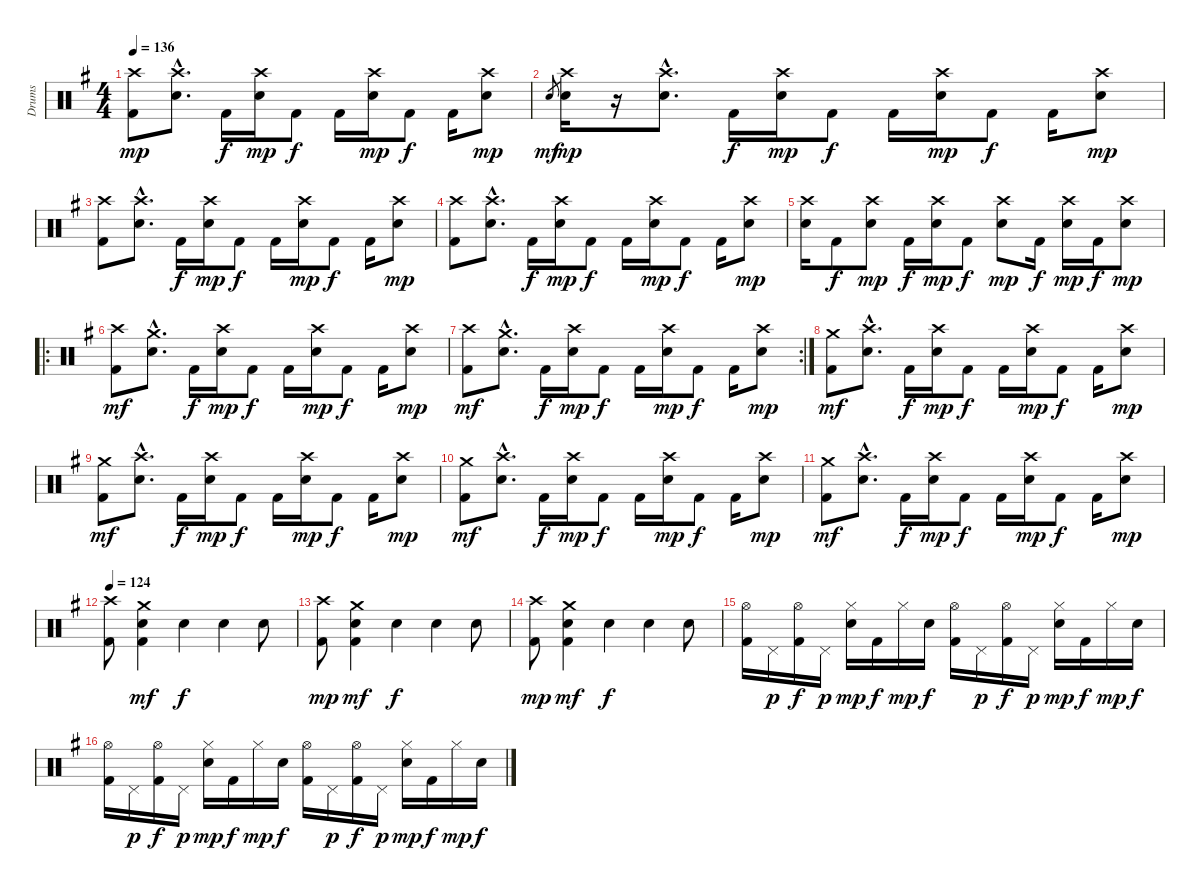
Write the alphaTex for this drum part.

\track ("Drums" "Drums") {instrument percussion}
\staff {score}
\articulation defaults
\ts (4 4)
\tempo 136
\clef neutral
\ks g
("Crash high (hit)" "Kick (hit) 2").8{dy mp} ("Crash high (hit)"{hac} "Snare (hit) 2"{hac}).8{d} "Kick (hit) 2".16{dy f} ("Crash high (hit)" "Snare (hit) 2").16{dy mp} "Kick (hit) 2".8{dy f} "Kick (hit) 2".16 ("Crash high (hit)" "Snare (hit) 2").16{dy mp} "Kick (hit) 2".8{dy f} "Kick (hit) 2".16 ("Crash high (hit)" "Snare (hit) 2").8{dy mp} |
"Snare (hit) 2".8{gr dy mf} ("Crash high (hit)" "Snare (hit) 2").16{dy mp} r.16 ("Crash high (hit)"{hac} "Snare (hit) 2"{hac}).8{d} "Kick (hit) 2".16{dy f} ("Crash high (hit)" "Snare (hit) 2").16{dy mp} "Kick (hit) 2".8{dy f} "Kick (hit) 2".16 ("Crash high (hit)" "Snare (hit) 2").16{dy mp} "Kick (hit) 2".8{dy f} "Kick (hit) 2".16 ("Crash high (hit)" "Snare (hit) 2").8{dy mp} |
("Crash high (hit)" "Kick (hit) 2").8 ("Crash high (hit)"{hac} "Snare (hit) 2"{hac}).8{d} "Kick (hit) 2".16{dy f} ("Crash high (hit)" "Snare (hit) 2").16{dy mp} "Kick (hit) 2".8{dy f} "Kick (hit) 2".16 ("Crash high (hit)" "Snare (hit) 2").16{dy mp} "Kick (hit) 2".8{dy f} "Kick (hit) 2".16 ("Crash high (hit)" "Snare (hit) 2").8{dy mp} |
("Crash high (hit)" "Kick (hit) 2").8 ("Crash high (hit)"{hac} "Snare (hit) 2"{hac}).8{d} "Kick (hit) 2".16{dy f} ("Crash high (hit)" "Snare (hit) 2").16{dy mp} "Kick (hit) 2".8{dy f} "Kick (hit) 2".16 ("Crash high (hit)" "Snare (hit) 2").16{dy mp} "Kick (hit) 2".8{dy f} "Kick (hit) 2".16 ("Crash high (hit)" "Snare (hit) 2").8{dy mp} |
("Crash high (hit)" "Snare (hit) 2").16 "Kick (hit) 2".8{dy f} ("Crash high (hit)" "Snare (hit) 2").8{dy mp} "Kick (hit) 2".16{dy f} ("Crash high (hit)" "Snare (hit) 2").16{dy mp} "Kick (hit) 2".8{dy f} ("Crash high (hit)" "Snare (hit) 2").8{dy mp} "Kick (hit) 2".16{dy f} ("Crash high (hit)" "Snare (hit) 2").16{dy mp} "Kick (hit) 2".16{dy f} ("Crash high (hit)" "Snare (hit) 2").8{dy mp} |
\ro
("Crash high (hit)" "Kick (hit) 2").8{dy mf} ("Crash medium (hit)"{hac} "Snare (hit) 2"{hac}).8{d} "Kick (hit) 2".16{dy f} ("Crash high (hit)" "Snare (hit) 2").16{dy mp} "Kick (hit) 2".8{dy f} "Kick (hit) 2".16 ("Crash high (hit)" "Snare (hit) 2").16{dy mp} "Kick (hit) 2".8{dy f} "Kick (hit) 2".16 ("Crash high (hit)" "Snare (hit) 2").8{dy mp} |
\rc 2
("Crash high (hit)" "Kick (hit) 2").8{dy mf} ("Crash medium (hit)"{hac} "Snare (hit) 2"{hac}).8{d} "Kick (hit) 2".16{dy f} ("Crash high (hit)" "Snare (hit) 2").16{dy mp} "Kick (hit) 2".8{dy f} "Kick (hit) 2".16 ("Crash high (hit)" "Snare (hit) 2").16{dy mp} "Kick (hit) 2".8{dy f} "Kick (hit) 2".16 ("Crash high (hit)" "Snare (hit) 2").8{dy mp} |
("Crash medium (hit)" "Kick (hit) 2").8{dy mf} ("Crash high (hit)"{hac} "Snare (hit) 2"{hac}).8{d} "Kick (hit) 2".16{dy f} ("Crash high (hit)" "Snare (hit) 2").16{dy mp} "Kick (hit) 2".8{dy f} "Kick (hit) 2".16 ("Crash high (hit)" "Snare (hit) 2").16{dy mp} "Kick (hit) 2".8{dy f} "Kick (hit) 2".16 ("Crash high (hit)" "Snare (hit) 2").8{dy mp} |
("Crash medium (hit)" "Kick (hit) 2").8{dy mf} ("Crash high (hit)"{hac} "Snare (hit) 2"{hac}).8{d} "Kick (hit) 2".16{dy f} ("Crash high (hit)" "Snare (hit) 2").16{dy mp} "Kick (hit) 2".8{dy f} "Kick (hit) 2".16 ("Crash high (hit)" "Snare (hit) 2").16{dy mp} "Kick (hit) 2".8{dy f} "Kick (hit) 2".16 ("Crash high (hit)" "Snare (hit) 2").8{dy mp} |
("Crash medium (hit)" "Kick (hit) 2").8{dy mf} ("Crash high (hit)"{hac} "Snare (hit) 2"{hac}).8{d} "Kick (hit) 2".16{dy f} ("Crash high (hit)" "Snare (hit) 2").16{dy mp} "Kick (hit) 2".8{dy f} "Kick (hit) 2".16 ("Crash high (hit)" "Snare (hit) 2").16{dy mp} "Kick (hit) 2".8{dy f} "Kick (hit) 2".16 ("Crash high (hit)" "Snare (hit) 2").8{dy mp} |
("Crash medium (hit)" "Kick (hit) 2").8{dy mf} ("Crash high (hit)"{hac} "Snare (hit) 2"{hac}).8{d} "Kick (hit) 2".16{dy f} ("Crash high (hit)" "Snare (hit) 2").16{dy mp} "Kick (hit) 2".8{dy f} "Kick (hit) 2".16 ("Crash high (hit)" "Snare (hit) 2").16{dy mp} "Kick (hit) 2".8{dy f} "Kick (hit) 2".16 ("Crash high (hit)" "Snare (hit) 2").8{dy mp} |
\tempo 124
("Crash high (hit)" "Kick (hit) 2").8 ("Crash medium (hit)" "Snare (hit) 2" "Kick (hit) 2").4{dy mf} "Snare (hit) 2".4{dy f} "Snare (hit) 2".4 "Snare (hit) 2".8 |
("Crash high (hit)" "Kick (hit) 2").8{dy mp} ("Crash medium (hit)" "Snare (hit) 2" "Kick (hit) 2").4{dy mf} "Snare (hit) 2".4{dy f} "Snare (hit) 2".4 "Snare (hit) 2".8 |
("Crash high (hit)" "Kick (hit) 2").8{dy mp} ("Crash medium (hit)" "Snare (hit) 2" "Kick (hit) 2").4{dy mf} "Snare (hit) 2".4{dy f} "Snare (hit) 2".4 "Snare (hit) 2".8 |
("Hi-Hat (open)" "Kick (hit) 2").16 "Pedal Hi-Hat (hit)".16{dy p} ("Hi-Hat (open)" "Kick (hit) 2").16{dy f} "Pedal Hi-Hat (hit)".16{dy p} ("Hi-Hat (closed)" "Snare (hit) 2").16{dy mp} "Kick (hit) 2".16{dy f} "Hi-Hat (closed)".16{dy mp} "Snare (hit) 2".16{dy f} ("Hi-Hat (open)" "Kick (hit) 2").16 "Pedal Hi-Hat (hit)".16{dy p} ("Hi-Hat (open)" "Kick (hit) 2").16{dy f} "Pedal Hi-Hat (hit)".16{dy p} ("Hi-Hat (closed)" "Snare (hit) 2").16{dy mp} "Kick (hit) 2".16{dy f} "Hi-Hat (closed)".16{dy mp} "Snare (hit) 2".16{dy f} |
("Hi-Hat (open)" "Kick (hit) 2").16 "Pedal Hi-Hat (hit)".16{dy p} ("Hi-Hat (open)" "Kick (hit) 2").16{dy f} "Pedal Hi-Hat (hit)".16{dy p} ("Hi-Hat (closed)" "Snare (hit) 2").16{dy mp} "Kick (hit) 2".16{dy f} "Hi-Hat (closed)".16{dy mp} "Snare (hit) 2".16{dy f} ("Hi-Hat (open)" "Kick (hit) 2").16 "Pedal Hi-Hat (hit)".16{dy p} ("Hi-Hat (open)" "Kick (hit) 2").16{dy f} "Pedal Hi-Hat (hit)".16{dy p} ("Hi-Hat (closed)" "Snare (hit) 2").16{dy mp} "Kick (hit) 2".16{dy f} "Hi-Hat (closed)".16{dy mp} "Snare (hit) 2".16{dy f}
